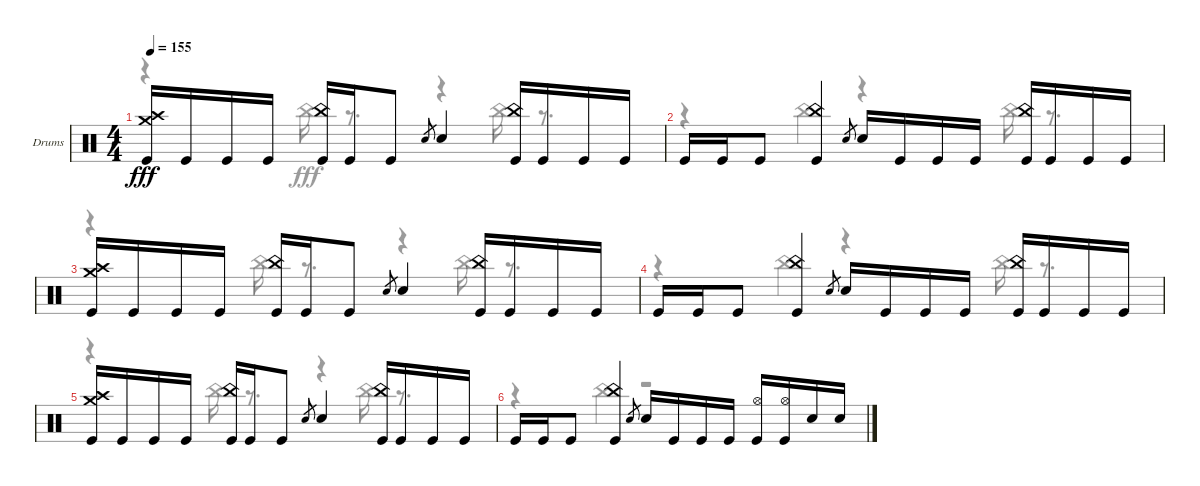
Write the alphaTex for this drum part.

\defaultSystemsLayout 4
\bracketExtendMode groupsimilarinstruments
\firstSystemTrackNameOrientation horizontal
\otherSystemsTrackNameOrientation horizontal
\track ("Alex Rudinger" "Drums") {instrument percussion}
\staff {score}
\articulation defaults
\voice
\ts (4 4)
\tempo 155
\clef neutral
\ks c
("Crash high (hit)" "Crash medium (hit)" "Kick (hit)").16{dy fff} "Kick (hit)".16 "Kick (hit)".16 "Kick (hit)".16 ("Kick (hit)" "China (hit)").16 "Kick (hit)".16 "Kick (hit)".8 "Snare (hit) 2".8{gr} "Snare (hit) 2".4 ("Kick (hit)" "China (hit)").16 "Kick (hit)".16 "Kick (hit)".16 "Kick (hit)".16 |
"Kick (hit)".16 "Kick (hit)".16 "Kick (hit)".8 ("Kick (hit)" "China (hit)").4 "Snare (hit) 2".8{gr} "Snare (hit) 2".16 "Kick (hit)".16 "Kick (hit)".16 "Kick (hit)".16 ("Kick (hit)" "China (hit)").16 "Kick (hit)".16 "Kick (hit)".16 "Kick (hit)".16 |
("Crash high (hit)" "Crash medium (hit)" "Kick (hit)").16 "Kick (hit)".16 "Kick (hit)".16 "Kick (hit)".16 ("Kick (hit)" "China (hit)").16 "Kick (hit)".16 "Kick (hit)".8 "Snare (hit) 2".8{gr} "Snare (hit) 2".4 ("Kick (hit)" "China (hit)").16 "Kick (hit)".16 "Kick (hit)".16 "Kick (hit)".16 |
"Kick (hit)".16 "Kick (hit)".16 "Kick (hit)".8 ("Kick (hit)" "China (hit)").4 "Snare (hit) 2".8{gr} "Snare (hit) 2".16 "Kick (hit)".16 "Kick (hit)".16 "Kick (hit)".16 ("Kick (hit)" "China (hit)").16 "Kick (hit)".16 "Kick (hit)".16 "Kick (hit)".16 |
("Crash high (hit)" "Crash medium (hit)" "Kick (hit)").16 "Kick (hit)".16 "Kick (hit)".16 "Kick (hit)".16 ("Kick (hit)" "China (hit)").16 "Kick (hit)".16 "Kick (hit)".8 "Snare (hit) 2".8{gr} "Snare (hit) 2".4 ("Kick (hit)" "China (hit)").16 "Kick (hit)".16 "Kick (hit)".16 "Kick (hit)".16 |
"Kick (hit)".16 "Kick (hit)".16 "Kick (hit)".8 ("Kick (hit)" "China (hit)").4 "Snare (hit) 2".8{gr} "Snare (hit) 2".16 "Kick (hit)".16 "Kick (hit)".16 "Kick (hit)".16 ("Kick (hit)" "Hi-Hat (open)").16 ("Kick (hit)" "Hi-Hat (open)").16 "Snare (hit) 2".16 "Snare (hit) 2".16 |
\voice
\clef neutral
\ottava regular
\simile none
\ks c
r.4{dy fff} "China (hit)".16 r.8{d} r.4 "China (hit)".16 r.8{d} |
r.4 "China (hit)".4 r.4 "China (hit)".16 r.8{d} |
r.4 "China (hit)".16 r.8{d} r.4 "China (hit)".16 r.8{d} |
r.4 "China (hit)".4 r.4 "China (hit)".16 r.8{d} |
r.4 "China (hit)".16 r.8{d} r.4 "China (hit)".16 r.8{d} |
r.4 "China (hit)".4 r.2 |
